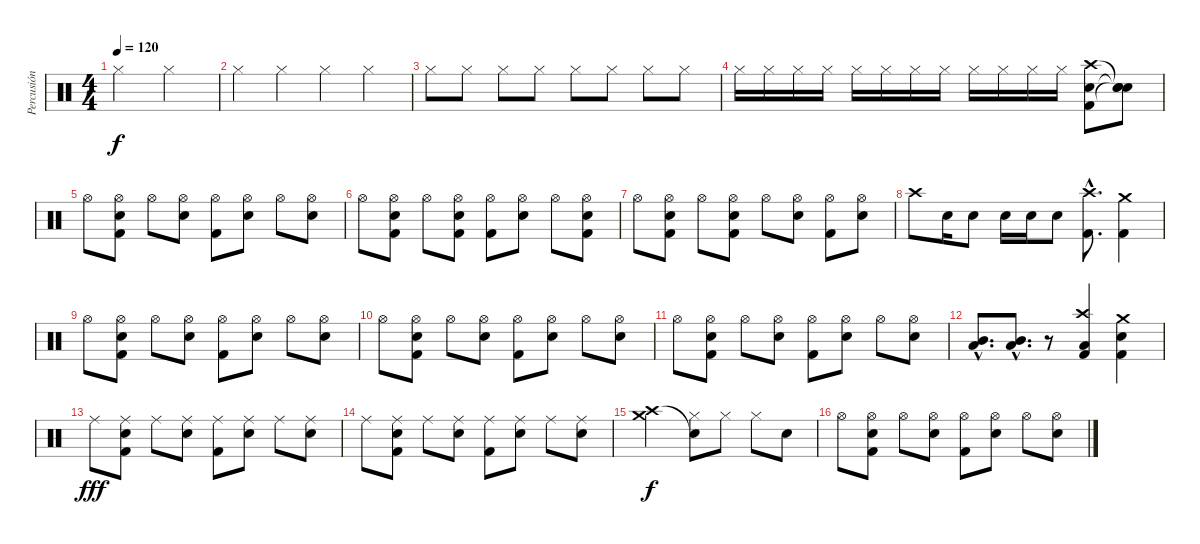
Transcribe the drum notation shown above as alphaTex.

\track ("Percusión" "Percusión") {instrument percussion}
\staff {score}
\articulation defaults
\ts (4 4)
\tempo 120
\clef neutral
\ks c "Hi-Hat (closed)".2{dy f} "Hi-Hat (closed)".2
|
"Hi-Hat (closed)".4 "Hi-Hat (closed)".4 "Hi-Hat (closed)".4 "Hi-Hat (closed)".4 |
"Hi-Hat (closed)".8 "Hi-Hat (closed)".8 "Hi-Hat (closed)".8 "Hi-Hat (closed)".8 "Hi-Hat (closed)".8 "Hi-Hat (closed)".8 "Hi-Hat (closed)".8 "Hi-Hat (closed)".8 |
"Hi-Hat (closed)".16 "Hi-Hat (closed)".16 "Hi-Hat (closed)".16 "Hi-Hat (closed)".16 "Hi-Hat (closed)".16 "Hi-Hat (closed)".16 "Hi-Hat (closed)".16 "Hi-Hat (closed)".16 "Hi-Hat (closed)".16 "Hi-Hat (closed)".16 "Hi-Hat (closed)".16 "Hi-Hat (closed)".16 ("Kick (hit) 2" "Snare (hit) 2" "Crash high (hit)").8 ("Snare (hit)"{t} "Snare (hit)"{t} "Snare (hit)"{t}).8 |
"Hi-Hat (open)".8 ("Hi-Hat (open)" "Snare (hit) 2" "Kick (hit) 2").8 "Hi-Hat (open)".8 ("Hi-Hat (open)" "Snare (hit) 2").8 ("Hi-Hat (open)" "Kick (hit) 2").8 ("Hi-Hat (open)" "Snare (hit) 2").8 "Hi-Hat (open)".8 ("Hi-Hat (open)" "Snare (hit) 2").8 |
"Hi-Hat (open)".8 ("Hi-Hat (open)" "Snare (hit) 2" "Kick (hit) 2").8 "Hi-Hat (open)".8 ("Hi-Hat (open)" "Snare (hit) 2" "Kick (hit) 2").8 ("Hi-Hat (open)" "Kick (hit) 2").8 ("Hi-Hat (open)" "Snare (hit) 2").8 "Hi-Hat (open)".8 ("Hi-Hat (open)" "Snare (hit) 2" "Kick (hit) 2").8 |
"Hi-Hat (open)".8 ("Hi-Hat (open)" "Snare (hit) 2" "Kick (hit) 2").8 "Hi-Hat (open)".8 ("Hi-Hat (open)" "Snare (hit) 2" "Kick (hit) 2").8 "Hi-Hat (open)".8 ("Hi-Hat (open)" "Snare (hit) 2").8 ("Hi-Hat (open)" "Kick (hit) 2").8 ("Hi-Hat (open)" "Snare (hit) 2").8 |
"Crash high (hit)".8 "Snare (hit) 2".16 "Snare (hit) 2".8 "Snare (hit) 2".16 "Snare (hit) 2".16 "Snare (hit) 2".8 ("Crash high (hit)"{hac} "Kick (hit) 2"{hac}).8{d} ("Crash medium (hit)" "Kick (hit) 2").4 |
"Hi-Hat (open)".8 ("Hi-Hat (open)" "Snare (hit) 2" "Kick (hit) 2").8 "Hi-Hat (open)".8 ("Hi-Hat (open)" "Snare (hit) 2").8 ("Hi-Hat (open)" "Kick (hit) 2").8 ("Hi-Hat (open)" "Snare (hit) 2").8 "Hi-Hat (open)".8 ("Hi-Hat (open)" "Snare (hit) 2").8 |
"Hi-Hat (open)".8 ("Hi-Hat (open)" "Snare (hit) 2" "Kick (hit) 2").8 "Hi-Hat (open)".8 ("Hi-Hat (open)" "Snare (hit) 2").8 ("Hi-Hat (open)" "Kick (hit) 2").8 ("Hi-Hat (open)" "Snare (hit) 2").8 "Hi-Hat (open)".8 ("Hi-Hat (open)" "Snare (hit) 2").8 |
"Hi-Hat (open)".8 ("Hi-Hat (open)" "Snare (hit) 2" "Kick (hit) 2").8 "Hi-Hat (open)".8 ("Hi-Hat (open)" "Snare (hit) 2").8 ("Hi-Hat (open)" "Kick (hit) 2").8 ("Hi-Hat (open)" "Snare (hit) 2").8 "Hi-Hat (open)".8 ("Hi-Hat (open)" "Snare (hit) 2").8 |
("Low Tom (hit)"{hac} "Mid Tom (hit)"{hac}).8{d} ("Low Tom (hit)"{hac} "Mid Tom (hit)"{hac}).8{d} r.8 ("Crash high (hit)" "Kick (hit) 2" "Low Tom (hit)").4 ("Crash medium (hit)" "Snare (hit) 2" "Kick (hit) 2").4 |
"Ride (middle)".8{dy fff} ("Ride (middle)" "Snare (hit) 2" "Kick (hit) 2").8 "Ride (middle)".8 ("Ride (middle)" "Snare (hit) 2").8 ("Ride (middle)" "Kick (hit) 2").8 ("Ride (middle)" "Snare (hit) 2").8 "Ride (middle)".8 ("Ride (middle)" "Snare (hit) 2").8 |
"Ride (middle)".8 ("Ride (middle)" "Snare (hit) 2" "Kick (hit) 2").8 "Ride (middle)".8 ("Ride (middle)" "Snare (hit) 2").8 ("Ride (middle)" "Kick (hit) 2").8 ("Ride (middle)" "Snare (hit) 2").8 "Ride (middle)".8 ("Ride (middle)" "Snare (hit) 2").8 |
("Crash high (hit)" "Crash medium (hit)").2{dy f} ("Snare (hit)"{t} "Hi-Hat (closed)").8 "Hi-Hat (closed)".8 "Hi-Hat (closed)".8 "Snare (hit) 2".8 |
"Hi-Hat (open)".8 ("Hi-Hat (open)" "Snare (hit) 2" "Kick (hit) 2").8 "Hi-Hat (open)".8 ("Hi-Hat (open)" "Snare (hit) 2").8 ("Hi-Hat (open)" "Kick (hit) 2").8 ("Hi-Hat (open)" "Snare (hit) 2").8 "Hi-Hat (open)".8 ("Hi-Hat (open)" "Snare (hit) 2").8
